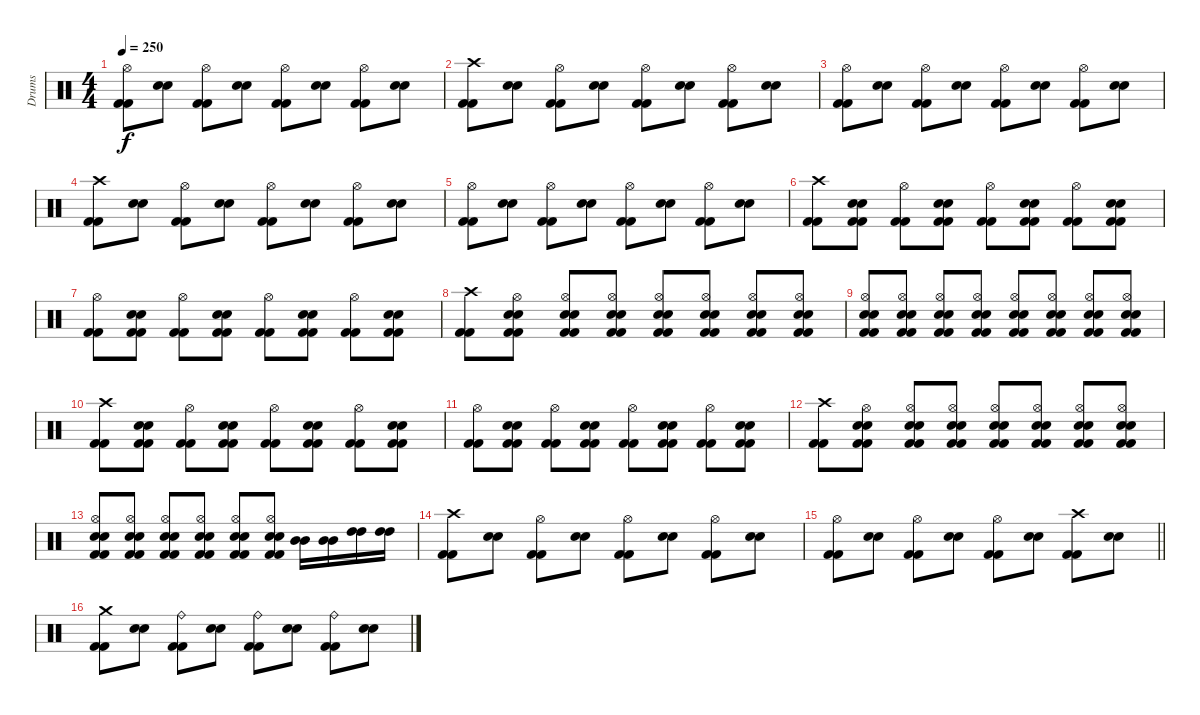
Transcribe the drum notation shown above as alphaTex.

\track ("Drums" "Drums") {instrument percussion}
\staff {score}
\articulation defaults
\ts (4 4)
\tempo 250
\clef neutral
\ks c
("Kick (hit) 2" "Kick (hit) 2" "Hi-Hat (open)").8{dy f} ("Electric Snare (hit)" "Electric Snare (hit)").8 ("Kick (hit) 2" "Kick (hit) 2" "Hi-Hat (open)").8 ("Electric Snare (hit)" "Electric Snare (hit)").8 ("Kick (hit) 2" "Kick (hit) 2" "Hi-Hat (open)").8 ("Electric Snare (hit)" "Electric Snare (hit)").8 ("Kick (hit) 2" "Kick (hit) 2" "Hi-Hat (open)").8 ("Electric Snare (hit)" "Electric Snare (hit)").8 |
("Kick (hit) 2" "Kick (hit) 2" "Crash high (hit)").8 ("Electric Snare (hit)" "Electric Snare (hit)").8 ("Kick (hit) 2" "Kick (hit) 2" "Hi-Hat (open)").8 ("Electric Snare (hit)" "Electric Snare (hit)").8 ("Kick (hit) 2" "Kick (hit) 2" "Hi-Hat (open)").8 ("Electric Snare (hit)" "Electric Snare (hit)").8 ("Kick (hit) 2" "Kick (hit) 2" "Hi-Hat (open)").8 ("Electric Snare (hit)" "Electric Snare (hit)").8 |
("Kick (hit) 2" "Kick (hit) 2" "Hi-Hat (open)").8 ("Electric Snare (hit)" "Electric Snare (hit)").8 ("Kick (hit) 2" "Kick (hit) 2" "Hi-Hat (open)").8 ("Electric Snare (hit)" "Electric Snare (hit)").8 ("Kick (hit) 2" "Kick (hit) 2" "Hi-Hat (open)").8 ("Electric Snare (hit)" "Electric Snare (hit)").8 ("Kick (hit) 2" "Kick (hit) 2" "Hi-Hat (open)").8 ("Electric Snare (hit)" "Electric Snare (hit)").8 |
("Kick (hit) 2" "Kick (hit) 2" "Crash high (hit)").8 ("Electric Snare (hit)" "Electric Snare (hit)").8 ("Kick (hit) 2" "Kick (hit) 2" "Hi-Hat (open)").8 ("Electric Snare (hit)" "Electric Snare (hit)").8 ("Kick (hit) 2" "Kick (hit) 2" "Hi-Hat (open)").8 ("Electric Snare (hit)" "Electric Snare (hit)").8 ("Kick (hit) 2" "Kick (hit) 2" "Hi-Hat (open)").8 ("Electric Snare (hit)" "Electric Snare (hit)").8 |
("Kick (hit) 2" "Kick (hit) 2" "Hi-Hat (open)").8 ("Electric Snare (hit)" "Electric Snare (hit)").8 ("Kick (hit) 2" "Kick (hit) 2" "Hi-Hat (open)").8 ("Electric Snare (hit)" "Electric Snare (hit)").8 ("Kick (hit) 2" "Kick (hit) 2" "Hi-Hat (open)").8 ("Electric Snare (hit)" "Electric Snare (hit)").8 ("Kick (hit) 2" "Kick (hit) 2" "Hi-Hat (open)").8 ("Electric Snare (hit)" "Electric Snare (hit)").8 |
("Kick (hit) 2" "Kick (hit) 2" "Crash high (hit)").8 ("Kick (hit) 2" "Kick (hit) 2" "Electric Snare (hit)" "Electric Snare (hit)").8 ("Kick (hit) 2" "Kick (hit) 2" "Hi-Hat (open)").8 ("Kick (hit) 2" "Kick (hit) 2" "Electric Snare (hit)" "Electric Snare (hit)").8 ("Kick (hit) 2" "Kick (hit) 2" "Hi-Hat (open)").8 ("Kick (hit) 2" "Kick (hit) 2" "Electric Snare (hit)" "Electric Snare (hit)").8 ("Kick (hit) 2" "Kick (hit) 2" "Hi-Hat (open)").8 ("Kick (hit) 2" "Kick (hit) 2" "Electric Snare (hit)" "Electric Snare (hit)").8 |
("Kick (hit) 2" "Kick (hit) 2" "Hi-Hat (open)").8 ("Kick (hit) 2" "Kick (hit) 2" "Electric Snare (hit)" "Electric Snare (hit)").8 ("Kick (hit) 2" "Kick (hit) 2" "Hi-Hat (open)").8 ("Kick (hit) 2" "Kick (hit) 2" "Electric Snare (hit)" "Electric Snare (hit)").8 ("Kick (hit) 2" "Kick (hit) 2" "Hi-Hat (open)").8 ("Kick (hit) 2" "Kick (hit) 2" "Electric Snare (hit)" "Electric Snare (hit)").8 ("Kick (hit) 2" "Kick (hit) 2" "Hi-Hat (open)").8 ("Kick (hit) 2" "Kick (hit) 2" "Electric Snare (hit)" "Electric Snare (hit)").8 |
("Kick (hit) 2" "Kick (hit) 2" "Crash high (hit)").8 ("Kick (hit) 2" "Kick (hit) 2" "Electric Snare (hit)" "Electric Snare (hit)" "Hi-Hat (open)").8 ("Kick (hit) 2" "Kick (hit) 2" "Electric Snare (hit)" "Electric Snare (hit)" "Hi-Hat (open)").8 ("Kick (hit) 2" "Kick (hit) 2" "Electric Snare (hit)" "Electric Snare (hit)" "Hi-Hat (open)").8 ("Kick (hit) 2" "Kick (hit) 2" "Electric Snare (hit)" "Electric Snare (hit)" "Hi-Hat (open)").8 ("Kick (hit) 2" "Kick (hit) 2" "Electric Snare (hit)" "Electric Snare (hit)" "Hi-Hat (open)").8 ("Kick (hit) 2" "Kick (hit) 2" "Electric Snare (hit)" "Electric Snare (hit)" "Hi-Hat (open)").8 ("Kick (hit) 2" "Kick (hit) 2" "Electric Snare (hit)" "Electric Snare (hit)" "Hi-Hat (open)").8 |
("Kick (hit) 2" "Kick (hit) 2" "Electric Snare (hit)" "Electric Snare (hit)" "Hi-Hat (open)").8 ("Kick (hit) 2" "Kick (hit) 2" "Electric Snare (hit)" "Electric Snare (hit)" "Hi-Hat (open)").8 ("Kick (hit) 2" "Kick (hit) 2" "Electric Snare (hit)" "Electric Snare (hit)" "Hi-Hat (open)").8 ("Kick (hit) 2" "Kick (hit) 2" "Electric Snare (hit)" "Electric Snare (hit)" "Hi-Hat (open)").8 ("Kick (hit) 2" "Kick (hit) 2" "Electric Snare (hit)" "Electric Snare (hit)" "Hi-Hat (open)").8 ("Kick (hit) 2" "Kick (hit) 2" "Electric Snare (hit)" "Electric Snare (hit)" "Hi-Hat (open)").8 ("Kick (hit) 2" "Kick (hit) 2" "Electric Snare (hit)" "Electric Snare (hit)" "Hi-Hat (open)").8 ("Kick (hit) 2" "Kick (hit) 2" "Electric Snare (hit)" "Electric Snare (hit)" "Hi-Hat (open)").8 |
("Kick (hit) 2" "Kick (hit) 2" "Crash high (hit)").8 ("Kick (hit) 2" "Kick (hit) 2" "Electric Snare (hit)" "Electric Snare (hit)").8 ("Kick (hit) 2" "Kick (hit) 2" "Hi-Hat (open)").8 ("Kick (hit) 2" "Kick (hit) 2" "Electric Snare (hit)" "Electric Snare (hit)").8 ("Kick (hit) 2" "Kick (hit) 2" "Hi-Hat (open)").8 ("Kick (hit) 2" "Kick (hit) 2" "Electric Snare (hit)" "Electric Snare (hit)").8 ("Kick (hit) 2" "Kick (hit) 2" "Hi-Hat (open)").8 ("Kick (hit) 2" "Kick (hit) 2" "Electric Snare (hit)" "Electric Snare (hit)").8 |
("Kick (hit) 2" "Kick (hit) 2" "Hi-Hat (open)").8 ("Kick (hit) 2" "Kick (hit) 2" "Electric Snare (hit)" "Electric Snare (hit)").8 ("Kick (hit) 2" "Kick (hit) 2" "Hi-Hat (open)").8 ("Kick (hit) 2" "Kick (hit) 2" "Electric Snare (hit)" "Electric Snare (hit)").8 ("Kick (hit) 2" "Kick (hit) 2" "Hi-Hat (open)").8 ("Kick (hit) 2" "Kick (hit) 2" "Electric Snare (hit)" "Electric Snare (hit)").8 ("Kick (hit) 2" "Kick (hit) 2" "Hi-Hat (open)").8 ("Kick (hit) 2" "Kick (hit) 2" "Electric Snare (hit)" "Electric Snare (hit)").8 |
("Kick (hit) 2" "Kick (hit) 2" "Crash high (hit)").8 ("Kick (hit) 2" "Kick (hit) 2" "Electric Snare (hit)" "Electric Snare (hit)" "Hi-Hat (open)").8 ("Kick (hit) 2" "Kick (hit) 2" "Electric Snare (hit)" "Electric Snare (hit)" "Hi-Hat (open)").8 ("Kick (hit) 2" "Kick (hit) 2" "Electric Snare (hit)" "Electric Snare (hit)" "Hi-Hat (open)").8 ("Kick (hit) 2" "Kick (hit) 2" "Electric Snare (hit)" "Electric Snare (hit)" "Hi-Hat (open)").8 ("Kick (hit) 2" "Kick (hit) 2" "Electric Snare (hit)" "Electric Snare (hit)" "Hi-Hat (open)").8 ("Kick (hit) 2" "Kick (hit) 2" "Electric Snare (hit)" "Electric Snare (hit)" "Hi-Hat (open)").8 ("Kick (hit) 2" "Kick (hit) 2" "Electric Snare (hit)" "Electric Snare (hit)" "Hi-Hat (open)").8 |
("Kick (hit) 2" "Kick (hit) 2" "Electric Snare (hit)" "Electric Snare (hit)" "Hi-Hat (open)").8 ("Kick (hit) 2" "Kick (hit) 2" "Electric Snare (hit)" "Electric Snare (hit)" "Hi-Hat (open)").8 ("Kick (hit) 2" "Kick (hit) 2" "Electric Snare (hit)" "Electric Snare (hit)" "Hi-Hat (open)").8 ("Kick (hit) 2" "Kick (hit) 2" "Electric Snare (hit)" "Electric Snare (hit)" "Hi-Hat (open)").8 ("Kick (hit) 2" "Kick (hit) 2" "Electric Snare (hit)" "Electric Snare (hit)" "Hi-Hat (open)").8 ("Kick (hit) 2" "Kick (hit) 2" "Electric Snare (hit)" "Electric Snare (hit)" "Hi-Hat (open)").8 ("Mid Tom (hit)" "Mid Tom (hit)").16 ("Mid Tom (hit)" "Mid Tom (hit)").16 ("High Tom (hit)" "High Tom (hit)").16 ("High Tom (hit)" "High Tom (hit)").16 |
("Kick (hit) 2" "Kick (hit) 2" "Crash high (hit)").8 ("Electric Snare (hit)" "Electric Snare (hit)").8 ("Kick (hit) 2" "Kick (hit) 2" "Hi-Hat (open)").8 ("Electric Snare (hit)" "Electric Snare (hit)").8 ("Kick (hit) 2" "Kick (hit) 2" "Hi-Hat (open)").8 ("Electric Snare (hit)" "Electric Snare (hit)").8 ("Kick (hit) 2" "Kick (hit) 2" "Hi-Hat (open)").8 ("Electric Snare (hit)" "Electric Snare (hit)").8 |
\barLineRight lightlight
("Kick (hit) 2" "Kick (hit) 2" "Hi-Hat (open)").8 ("Electric Snare (hit)" "Electric Snare (hit)").8 ("Kick (hit) 2" "Kick (hit) 2" "Hi-Hat (open)").8 ("Electric Snare (hit)" "Electric Snare (hit)").8 ("Kick (hit) 2" "Kick (hit) 2" "Hi-Hat (open)").8 ("Electric Snare (hit)" "Electric Snare (hit)").8 ("Kick (hit) 2" "Kick (hit) 2" "Crash high (hit)").8 ("Electric Snare (hit)" "Electric Snare (hit)").8 |
("Kick (hit) 2" "Kick (hit) 2" "Crash medium (hit)").8 ("Electric Snare (hit)" "Electric Snare (hit)").8 ("Kick (hit) 2" "Kick (hit) 2" "Ride (bell)").8 ("Electric Snare (hit)" "Electric Snare (hit)").8 ("Kick (hit) 2" "Kick (hit) 2" "Ride (bell)").8 ("Electric Snare (hit)" "Electric Snare (hit)").8 ("Kick (hit) 2" "Kick (hit) 2" "Ride (bell)").8 ("Electric Snare (hit)" "Electric Snare (hit)").8
